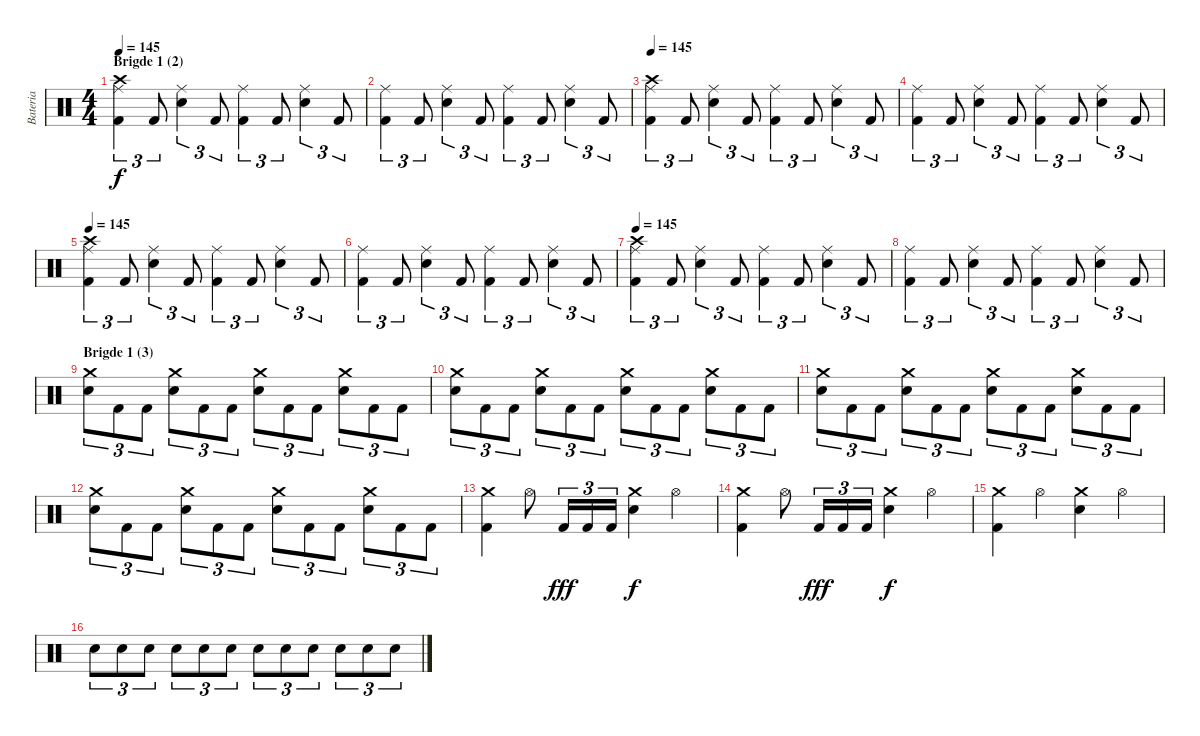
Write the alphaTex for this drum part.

\track ("Bateria" "Bateria") {instrument percussion}
\staff {score}
\articulation defaults
\ts (4 4)
\section ("" "Brigde 1 (2)")
\tempo 145
\clef neutral
\ks c
("Crash high (hit)" "Ride (middle)" "Kick (hit) 2").4{tu (3 2) dy f} "Kick (hit) 2".8{tu (3 2)} ("Ride (middle)" "Snare (hit) 2").4{tu (3 2)} "Kick (hit) 2".8{tu (3 2)} ("Ride (middle)" "Kick (hit) 2").4{tu (3 2)} "Kick (hit) 2".8{tu (3 2)} ("Ride (middle)" "Snare (hit) 2").4{tu (3 2)} "Kick (hit) 2".8{tu (3 2)} |
("Ride (middle)" "Kick (hit) 2").4{tu (3 2)} "Kick (hit) 2".8{tu (3 2)} ("Ride (middle)" "Snare (hit) 2").4{tu (3 2)} "Kick (hit) 2".8{tu (3 2)} ("Ride (middle)" "Kick (hit) 2").4{tu (3 2)} "Kick (hit) 2".8{tu (3 2)} ("Ride (middle)" "Snare (hit) 2").4{tu (3 2)} "Kick (hit) 2".8{tu (3 2)} |
\tempo 145
("Crash high (hit)" "Ride (middle)" "Kick (hit) 2").4{tu (3 2)} "Kick (hit) 2".8{tu (3 2)} ("Ride (middle)" "Snare (hit) 2").4{tu (3 2)} "Kick (hit) 2".8{tu (3 2)} ("Ride (middle)" "Kick (hit) 2").4{tu (3 2)} "Kick (hit) 2".8{tu (3 2)} ("Ride (middle)" "Snare (hit) 2").4{tu (3 2)} "Kick (hit) 2".8{tu (3 2)} |
("Ride (middle)" "Kick (hit) 2").4{tu (3 2)} "Kick (hit) 2".8{tu (3 2)} ("Ride (middle)" "Snare (hit) 2").4{tu (3 2)} "Kick (hit) 2".8{tu (3 2)} ("Ride (middle)" "Kick (hit) 2").4{tu (3 2)} "Kick (hit) 2".8{tu (3 2)} ("Ride (middle)" "Snare (hit) 2").4{tu (3 2)} "Kick (hit) 2".8{tu (3 2)} |
\tempo 145
("Crash high (hit)" "Ride (middle)" "Kick (hit) 2").4{tu (3 2)} "Kick (hit) 2".8{tu (3 2)} ("Ride (middle)" "Snare (hit) 2").4{tu (3 2)} "Kick (hit) 2".8{tu (3 2)} ("Ride (middle)" "Kick (hit) 2").4{tu (3 2)} "Kick (hit) 2".8{tu (3 2)} ("Ride (middle)" "Snare (hit) 2").4{tu (3 2)} "Kick (hit) 2".8{tu (3 2)} |
("Ride (middle)" "Kick (hit) 2").4{tu (3 2)} "Kick (hit) 2".8{tu (3 2)} ("Ride (middle)" "Snare (hit) 2").4{tu (3 2)} "Kick (hit) 2".8{tu (3 2)} ("Ride (middle)" "Kick (hit) 2").4{tu (3 2)} "Kick (hit) 2".8{tu (3 2)} ("Ride (middle)" "Snare (hit) 2").4{tu (3 2)} "Kick (hit) 2".8{tu (3 2)} |
\tempo 145
("Crash high (hit)" "Ride (middle)" "Kick (hit) 2").4{tu (3 2)} "Kick (hit) 2".8{tu (3 2)} ("Ride (middle)" "Snare (hit) 2").4{tu (3 2)} "Kick (hit) 2".8{tu (3 2)} ("Ride (middle)" "Kick (hit) 2").4{tu (3 2)} "Kick (hit) 2".8{tu (3 2)} ("Ride (middle)" "Snare (hit) 2").4{tu (3 2)} "Kick (hit) 2".8{tu (3 2)} |
("Ride (middle)" "Kick (hit) 2").4{tu (3 2)} "Kick (hit) 2".8{tu (3 2)} ("Ride (middle)" "Snare (hit) 2").4{tu (3 2)} "Kick (hit) 2".8{tu (3 2)} ("Ride (middle)" "Kick (hit) 2").4{tu (3 2)} "Kick (hit) 2".8{tu (3 2)} ("Ride (middle)" "Snare (hit) 2").4{tu (3 2)} "Kick (hit) 2".8{tu (3 2)} |
\section ("" "Brigde 1 (3)")
("Crash medium (hit)" "Snare (hit) 2").8{tu (3 2)} "Kick (hit) 2".8{tu (3 2)} "Kick (hit) 2".8{tu (3 2)} ("Crash medium (hit)" "Snare (hit) 2").8{tu (3 2)} "Kick (hit) 2".8{tu (3 2)} "Kick (hit) 2".8{tu (3 2)} ("Crash medium (hit)" "Snare (hit) 2").8{tu (3 2)} "Kick (hit) 2".8{tu (3 2)} "Kick (hit) 2".8{tu (3 2)} ("Crash medium (hit)" "Snare (hit) 2").8{tu (3 2)} "Kick (hit) 2".8{tu (3 2)} "Kick (hit) 2".8{tu (3 2)} |
("Crash medium (hit)" "Snare (hit) 2").8{tu (3 2)} "Kick (hit) 2".8{tu (3 2)} "Kick (hit) 2".8{tu (3 2)} ("Crash medium (hit)" "Snare (hit) 2").8{tu (3 2)} "Kick (hit) 2".8{tu (3 2)} "Kick (hit) 2".8{tu (3 2)} ("Crash medium (hit)" "Snare (hit) 2").8{tu (3 2)} "Kick (hit) 2".8{tu (3 2)} "Kick (hit) 2".8{tu (3 2)} ("Crash medium (hit)" "Snare (hit) 2").8{tu (3 2)} "Kick (hit) 2".8{tu (3 2)} "Kick (hit) 2".8{tu (3 2)} |
("Crash medium (hit)" "Snare (hit) 2").8{tu (3 2)} "Kick (hit) 2".8{tu (3 2)} "Kick (hit) 2".8{tu (3 2)} ("Crash medium (hit)" "Snare (hit) 2").8{tu (3 2)} "Kick (hit) 2".8{tu (3 2)} "Kick (hit) 2".8{tu (3 2)} ("Crash medium (hit)" "Snare (hit) 2").8{tu (3 2)} "Kick (hit) 2".8{tu (3 2)} "Kick (hit) 2".8{tu (3 2)} ("Crash medium (hit)" "Snare (hit) 2").8{tu (3 2)} "Kick (hit) 2".8{tu (3 2)} "Kick (hit) 2".8{tu (3 2)} |
("Crash medium (hit)" "Snare (hit) 2").8{tu (3 2)} "Kick (hit) 2".8{tu (3 2)} "Kick (hit) 2".8{tu (3 2)} ("Crash medium (hit)" "Snare (hit) 2").8{tu (3 2)} "Kick (hit) 2".8{tu (3 2)} "Kick (hit) 2".8{tu (3 2)} ("Crash medium (hit)" "Snare (hit) 2").8{tu (3 2)} "Kick (hit) 2".8{tu (3 2)} "Kick (hit) 2".8{tu (3 2)} ("Crash medium (hit)" "Snare (hit) 2").8{tu (3 2)} "Kick (hit) 2".8{tu (3 2)} "Kick (hit) 2".8{tu (3 2)} |
("Kick (hit) 2" "Crash medium (hit)").4 "Hi-Hat (open)".8 "Kick (hit) 2".16{tu (3 2) dy fff} "Kick (hit) 2".16{tu (3 2)} "Kick (hit) 2".16{tu (3 2)} ("Crash medium (hit)" "Snare (hit) 2").4{dy f} "Hi-Hat (open)".4 |
("Kick (hit) 2" "Crash medium (hit)").4 "Hi-Hat (open)".8 "Kick (hit) 2".16{tu (3 2) dy fff} "Kick (hit) 2".16{tu (3 2)} "Kick (hit) 2".16{tu (3 2)} ("Crash medium (hit)" "Snare (hit) 2").4{dy f} "Hi-Hat (open)".4 |
("Kick (hit) 2" "Crash medium (hit)").4 "Hi-Hat (open)".4 ("Crash medium (hit)" "Snare (hit) 2").4 "Hi-Hat (open)".4 |
"Snare (hit) 2".8{tu (3 2)} "Snare (hit) 2".8{tu (3 2)} "Snare (hit) 2".8{tu (3 2)} "Snare (hit) 2".8{tu (3 2)} "Snare (hit) 2".8{tu (3 2)} "Snare (hit) 2".8{tu (3 2)} "Snare (hit) 2".8{tu (3 2)} "Snare (hit) 2".8{tu (3 2)} "Snare (hit) 2".8{tu (3 2)} "Snare (hit) 2".8{tu (3 2)} "Snare (hit) 2".8{tu (3 2)} "Snare (hit) 2".8{tu (3 2)}
